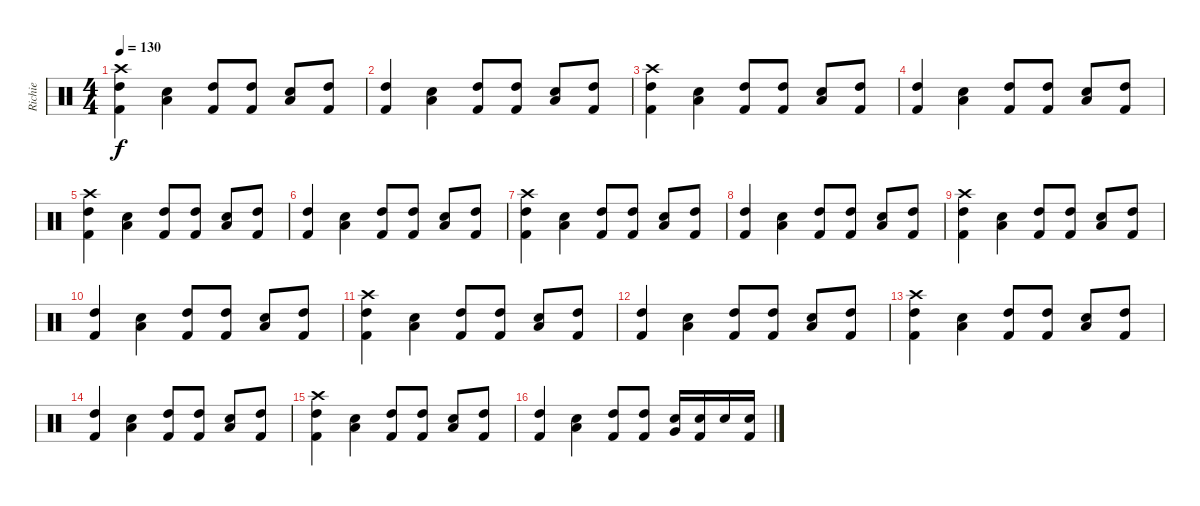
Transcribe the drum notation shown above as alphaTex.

\track ("Richie" "Richie") {instrument percussion}
\staff {score}
\articulation defaults
\ts (4 4)
\tempo 130
\clef neutral
\ks c
("Crash high (hit)" "High Tom (hit)" "Kick (hit) 2").4{dy f} ("Low Tom (hit)" "Snare (hit) 2").4 ("High Tom (hit)" "Kick (hit) 2").8 ("High Tom (hit)" "Kick (hit) 2").8 ("Low Tom (hit)" "Snare (hit) 2").8 ("High Tom (hit)" "Kick (hit) 2").8 |
("High Tom (hit)" "Kick (hit) 2").4 ("Low Tom (hit)" "Snare (hit) 2").4 ("High Tom (hit)" "Kick (hit) 2").8 ("High Tom (hit)" "Kick (hit) 2").8 ("Low Tom (hit)" "Snare (hit) 2").8 ("High Tom (hit)" "Kick (hit) 2").8 |
("Crash high (hit)" "High Tom (hit)" "Kick (hit) 2").4 ("Low Tom (hit)" "Snare (hit) 2").4 ("High Tom (hit)" "Kick (hit) 2").8 ("High Tom (hit)" "Kick (hit) 2").8 ("Low Tom (hit)" "Snare (hit) 2").8 ("High Tom (hit)" "Kick (hit) 2").8 |
("High Tom (hit)" "Kick (hit) 2").4 ("Low Tom (hit)" "Snare (hit) 2").4 ("High Tom (hit)" "Kick (hit) 2").8 ("High Tom (hit)" "Kick (hit) 2").8 ("Low Tom (hit)" "Snare (hit) 2").8 ("High Tom (hit)" "Kick (hit) 2").8 |
("Crash high (hit)" "High Tom (hit)" "Kick (hit) 2").4 ("Low Tom (hit)" "Snare (hit) 2").4 ("High Tom (hit)" "Kick (hit) 2").8 ("High Tom (hit)" "Kick (hit) 2").8 ("Low Tom (hit)" "Snare (hit) 2").8 ("High Tom (hit)" "Kick (hit) 2").8 |
("High Tom (hit)" "Kick (hit) 2").4 ("Low Tom (hit)" "Snare (hit) 2").4 ("High Tom (hit)" "Kick (hit) 2").8 ("High Tom (hit)" "Kick (hit) 2").8 ("Low Tom (hit)" "Snare (hit) 2").8 ("High Tom (hit)" "Kick (hit) 2").8 |
("Crash high (hit)" "High Tom (hit)" "Kick (hit) 2").4 ("Low Tom (hit)" "Snare (hit) 2").4 ("High Tom (hit)" "Kick (hit) 2").8 ("High Tom (hit)" "Kick (hit) 2").8 ("Low Tom (hit)" "Snare (hit) 2").8 ("High Tom (hit)" "Kick (hit) 2").8 |
("High Tom (hit)" "Kick (hit) 2").4 ("Low Tom (hit)" "Snare (hit) 2").4 ("High Tom (hit)" "Kick (hit) 2").8 ("High Tom (hit)" "Kick (hit) 2").8 ("Low Tom (hit)" "Snare (hit) 2").8 ("High Tom (hit)" "Kick (hit) 2").8 |
("Crash high (hit)" "High Tom (hit)" "Kick (hit) 2").4 ("Low Tom (hit)" "Snare (hit) 2").4 ("High Tom (hit)" "Kick (hit) 2").8 ("High Tom (hit)" "Kick (hit) 2").8 ("Low Tom (hit)" "Snare (hit) 2").8 ("High Tom (hit)" "Kick (hit) 2").8 |
("High Tom (hit)" "Kick (hit) 2").4 ("Low Tom (hit)" "Snare (hit) 2").4 ("High Tom (hit)" "Kick (hit) 2").8 ("High Tom (hit)" "Kick (hit) 2").8 ("Low Tom (hit)" "Snare (hit) 2").8 ("High Tom (hit)" "Kick (hit) 2").8 |
("Crash high (hit)" "High Tom (hit)" "Kick (hit) 2").4 ("Low Tom (hit)" "Snare (hit) 2").4 ("High Tom (hit)" "Kick (hit) 2").8 ("High Tom (hit)" "Kick (hit) 2").8 ("Low Tom (hit)" "Snare (hit) 2").8 ("High Tom (hit)" "Kick (hit) 2").8 |
("High Tom (hit)" "Kick (hit) 2").4 ("Low Tom (hit)" "Snare (hit) 2").4 ("High Tom (hit)" "Kick (hit) 2").8 ("High Tom (hit)" "Kick (hit) 2").8 ("Low Tom (hit)" "Snare (hit) 2").8 ("High Tom (hit)" "Kick (hit) 2").8 |
("Crash high (hit)" "High Tom (hit)" "Kick (hit) 2").4 ("Low Tom (hit)" "Snare (hit) 2").4 ("High Tom (hit)" "Kick (hit) 2").8 ("High Tom (hit)" "Kick (hit) 2").8 ("Low Tom (hit)" "Snare (hit) 2").8 ("High Tom (hit)" "Kick (hit) 2").8 |
("High Tom (hit)" "Kick (hit) 2").4 ("Low Tom (hit)" "Snare (hit) 2").4 ("High Tom (hit)" "Kick (hit) 2").8 ("High Tom (hit)" "Kick (hit) 2").8 ("Low Tom (hit)" "Snare (hit) 2").8 ("High Tom (hit)" "Kick (hit) 2").8 |
("Crash high (hit)" "High Tom (hit)" "Kick (hit) 2").4 ("Low Tom (hit)" "Snare (hit) 2").4 ("High Tom (hit)" "Kick (hit) 2").8 ("High Tom (hit)" "Kick (hit) 2").8 ("Low Tom (hit)" "Snare (hit) 2").8 ("High Tom (hit)" "Kick (hit) 2").8 |
("High Tom (hit)" "Kick (hit) 2").4 ("Low Tom (hit)" "Snare (hit) 2").4 ("High Tom (hit)" "Kick (hit) 2").8 ("High Tom (hit)" "Kick (hit) 2").8 ("Electric Snare (hit)" "Very Low Tom (hit)").16 ("Snare (hit) 2" "Kick (hit) 2").16 "Snare (hit) 2".16 ("Snare (hit) 2" "Kick (hit) 2").16
